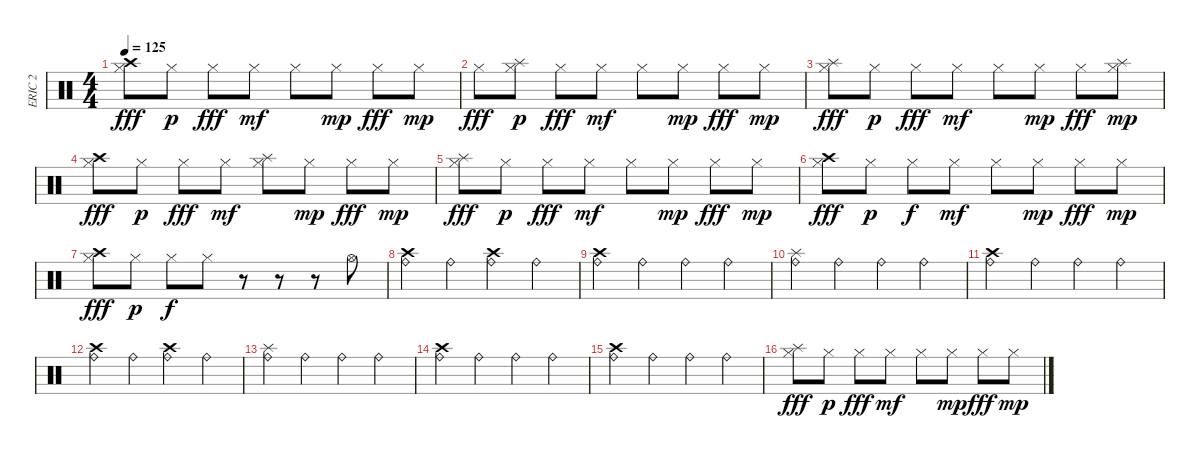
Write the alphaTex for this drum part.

\track ("ERIC 2" "ERIC 2") {instrument percussion}
\staff {score}
\articulation defaults
\ts (4 4)
\tempo 125
\clef neutral
\ks c
("Crash high (hit)" "Hi-Hat (closed)").8{dy fff} "Hi-Hat (closed)".8{dy p} "Hi-Hat (closed)".8{dy fff} "Hi-Hat (closed)".8{dy mf} "Hi-Hat (closed)".8 "Hi-Hat (closed)".8{dy mp} "Hi-Hat (closed)".8{dy fff} "Hi-Hat (closed)".8{dy mp} |
"Hi-Hat (closed)".8{dy fff} ("Splash (hit)" "Hi-Hat (closed)").8{dy p} "Hi-Hat (closed)".8{dy fff} "Hi-Hat (closed)".8{dy mf} "Hi-Hat (closed)".8 "Hi-Hat (closed)".8{dy mp} "Hi-Hat (closed)".8{dy fff} "Hi-Hat (closed)".8{dy mp} |
("Splash (hit)" "Hi-Hat (closed)").8{dy fff} "Hi-Hat (closed)".8{dy p} "Hi-Hat (closed)".8{dy fff} "Hi-Hat (closed)".8{dy mf} "Hi-Hat (closed)".8 "Hi-Hat (closed)".8{dy mp} "Hi-Hat (closed)".8{dy fff} ("Splash (hit)" "Hi-Hat (closed)").8{dy mp} |
("Crash high (hit)" "Hi-Hat (closed)").8{dy fff} "Hi-Hat (closed)".8{dy p} "Hi-Hat (closed)".8{dy fff} "Hi-Hat (closed)".8{dy mf} ("Splash (hit)" "Hi-Hat (closed)").8 "Hi-Hat (closed)".8{dy mp} "Hi-Hat (closed)".8{dy fff} "Hi-Hat (closed)".8{dy mp} |
("Splash (hit)" "Hi-Hat (closed)").8{dy fff} "Hi-Hat (closed)".8{dy p} "Hi-Hat (closed)".8{dy fff} "Hi-Hat (closed)".8{dy mf} "Hi-Hat (closed)".8 "Hi-Hat (closed)".8{dy mp} "Hi-Hat (closed)".8{dy fff} "Hi-Hat (closed)".8{dy mp} |
("Crash high (hit)" "Hi-Hat (closed)").8{dy fff} "Hi-Hat (closed)".8{dy p} "Hi-Hat (closed)".8{dy f} "Hi-Hat (closed)".8{dy mf} "Hi-Hat (closed)".8 "Hi-Hat (closed)".8{dy mp} "Hi-Hat (closed)".8{dy fff} "Hi-Hat (closed)".8{dy mp} |
("Crash high (hit)" "Hi-Hat (closed)").8{dy fff} "Hi-Hat (closed)".8{dy p} "Hi-Hat (closed)".8{dy f} "Hi-Hat (closed)".8 r.8 r.8 r.8 "Hi-Hat (open)".8 |
("Crash high (hit)" "Ride (bell)").4 "Ride (bell)".4 ("Crash high (hit)" "Ride (bell)").4 "Ride (bell)".4 |
("Crash high (hit)" "Ride (bell)").4 "Ride (bell)".4 "Ride (bell)".4 "Ride (bell)".4 |
("Splash (hit)" "Ride (bell)").4 "Ride (bell)".4 "Ride (bell)".4 "Ride (bell)".4 |
("Crash high (hit)" "Ride (bell)").4 "Ride (bell)".4 "Ride (bell)".4 "Ride (bell)".4 |
("Crash high (hit)" "Ride (bell)").4 "Ride (bell)".4 ("Crash high (hit)" "Ride (bell)").4 "Ride (bell)".4 |
("Splash (hit)" "Ride (bell)").4 "Ride (bell)".4 "Ride (bell)".4 "Ride (bell)".4 |
("Crash high (hit)" "Ride (bell)").4 "Ride (bell)".4 "Ride (bell)".4 "Ride (bell)".4 |
("Crash high (hit)" "Ride (bell)").4 "Ride (bell)".4 "Ride (bell)".4 "Ride (bell)".4 |
("Splash (hit)" "Hi-Hat (closed)").8{dy fff} "Hi-Hat (closed)".8{dy p} "Hi-Hat (closed)".8{dy fff} "Hi-Hat (closed)".8{dy mf} "Hi-Hat (closed)".8 "Hi-Hat (closed)".8{dy mp} "Hi-Hat (closed)".8{dy fff} "Hi-Hat (closed)".8{dy mp}
